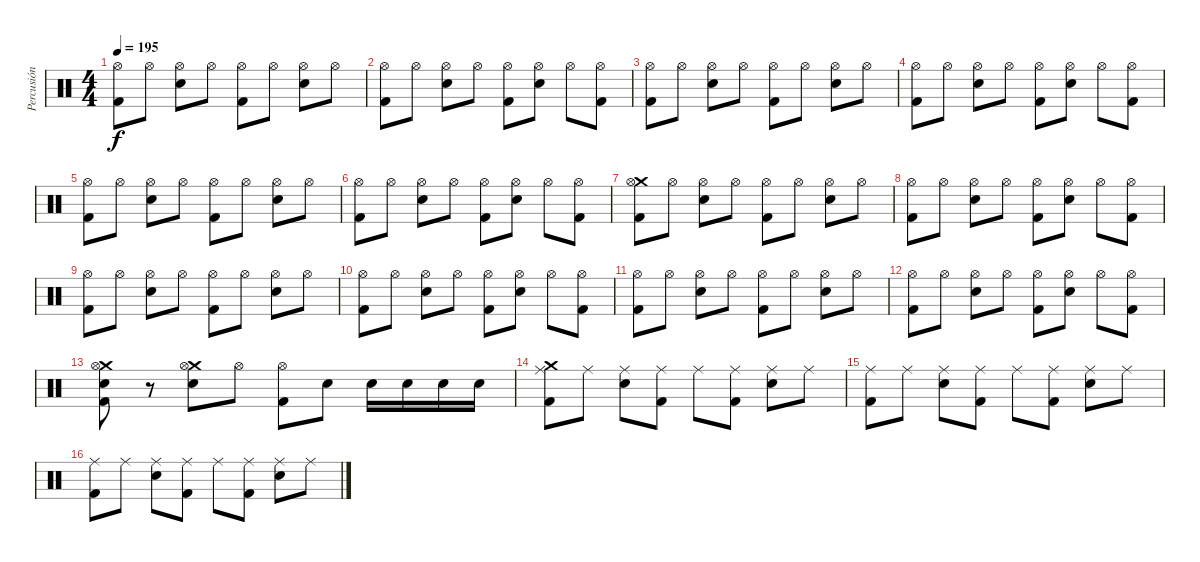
\track ("Percusión" "Percusión") {instrument percussion}
\staff {score}
\articulation defaults
\ts (4 4)
\tempo 195
\clef neutral
\ks c
("Hi-Hat (open)" "Kick (hit) 2").8{dy f} "Hi-Hat (open)".8 ("Hi-Hat (open)" "Snare (hit) 2").8 "Hi-Hat (open)".8 ("Hi-Hat (open)" "Kick (hit) 2").8 "Hi-Hat (open)".8 ("Hi-Hat (open)" "Snare (hit) 2").8 "Hi-Hat (open)".8 |
("Hi-Hat (open)" "Kick (hit) 2").8 "Hi-Hat (open)".8 ("Hi-Hat (open)" "Snare (hit) 2").8 "Hi-Hat (open)".8 ("Hi-Hat (open)" "Kick (hit) 2").8 ("Hi-Hat (open)" "Snare (hit) 2").8 "Hi-Hat (open)".8 ("Hi-Hat (open)" "Kick (hit) 2").8 |
("Hi-Hat (open)" "Kick (hit) 2").8 "Hi-Hat (open)".8 ("Hi-Hat (open)" "Snare (hit) 2").8 "Hi-Hat (open)".8 ("Hi-Hat (open)" "Kick (hit) 2").8 "Hi-Hat (open)".8 ("Hi-Hat (open)" "Snare (hit) 2").8 "Hi-Hat (open)".8 |
("Hi-Hat (open)" "Kick (hit) 2").8 "Hi-Hat (open)".8 ("Hi-Hat (open)" "Snare (hit) 2").8 "Hi-Hat (open)".8 ("Hi-Hat (open)" "Kick (hit) 2").8 ("Hi-Hat (open)" "Snare (hit) 2").8 "Hi-Hat (open)".8 ("Hi-Hat (open)" "Kick (hit) 2").8 |
("Hi-Hat (open)" "Kick (hit) 2").8 "Hi-Hat (open)".8 ("Hi-Hat (open)" "Snare (hit) 2").8 "Hi-Hat (open)".8 ("Hi-Hat (open)" "Kick (hit) 2").8 "Hi-Hat (open)".8 ("Hi-Hat (open)" "Snare (hit) 2").8 "Hi-Hat (open)".8 |
("Hi-Hat (open)" "Kick (hit) 2").8 "Hi-Hat (open)".8 ("Hi-Hat (open)" "Snare (hit) 2").8 "Hi-Hat (open)".8 ("Hi-Hat (open)" "Kick (hit) 2").8 ("Hi-Hat (open)" "Snare (hit) 2").8 "Hi-Hat (open)".8 ("Hi-Hat (open)" "Kick (hit) 2").8 |
("Crash medium (hit)" "Hi-Hat (open)" "Kick (hit) 2").8 "Hi-Hat (open)".8 ("Hi-Hat (open)" "Snare (hit) 2").8 "Hi-Hat (open)".8 ("Hi-Hat (open)" "Kick (hit) 2").8 "Hi-Hat (open)".8 ("Hi-Hat (open)" "Snare (hit) 2").8 "Hi-Hat (open)".8 |
("Hi-Hat (open)" "Kick (hit) 2").8 "Hi-Hat (open)".8 ("Hi-Hat (open)" "Snare (hit) 2").8 "Hi-Hat (open)".8 ("Hi-Hat (open)" "Kick (hit) 2").8 ("Hi-Hat (open)" "Snare (hit) 2").8 "Hi-Hat (open)".8 ("Hi-Hat (open)" "Kick (hit) 2").8 |
("Hi-Hat (open)" "Kick (hit) 2").8 "Hi-Hat (open)".8 ("Hi-Hat (open)" "Snare (hit) 2").8 "Hi-Hat (open)".8 ("Hi-Hat (open)" "Kick (hit) 2").8 "Hi-Hat (open)".8 ("Hi-Hat (open)" "Snare (hit) 2").8 "Hi-Hat (open)".8 |
("Hi-Hat (open)" "Kick (hit) 2").8 "Hi-Hat (open)".8 ("Hi-Hat (open)" "Snare (hit) 2").8 "Hi-Hat (open)".8 ("Hi-Hat (open)" "Kick (hit) 2").8 ("Hi-Hat (open)" "Snare (hit) 2").8 "Hi-Hat (open)".8 ("Hi-Hat (open)" "Kick (hit) 2").8 |
("Hi-Hat (open)" "Kick (hit) 2").8 "Hi-Hat (open)".8 ("Hi-Hat (open)" "Snare (hit) 2").8 "Hi-Hat (open)".8 ("Hi-Hat (open)" "Kick (hit) 2").8 "Hi-Hat (open)".8 ("Hi-Hat (open)" "Snare (hit) 2").8 "Hi-Hat (open)".8 |
("Hi-Hat (open)" "Kick (hit) 2").8 "Hi-Hat (open)".8 ("Hi-Hat (open)" "Snare (hit) 2").8 "Hi-Hat (open)".8 ("Hi-Hat (open)" "Kick (hit) 2").8 ("Hi-Hat (open)" "Snare (hit) 2").8 "Hi-Hat (open)".8 ("Hi-Hat (open)" "Kick (hit) 2").8 |
("Crash medium (hit)" "Hi-Hat (open)" "Snare (hit) 2" "Kick (hit) 2").8 r.8 ("Crash medium (hit)" "Hi-Hat (open)" "Snare (hit) 2").8 "Hi-Hat (open)".8 ("Hi-Hat (open)" "Kick (hit) 2").8 "Snare (hit) 2".8 "Snare (hit) 2".16 "Snare (hit) 2".16 "Snare (hit) 2".16 "Snare (hit) 2".16 |
("Crash medium (hit)" "Ride (middle)" "Kick (hit) 2").8 "Ride (middle)".8 ("Ride (middle)" "Snare (hit) 2").8 ("Ride (middle)" "Kick (hit) 2").8 "Ride (middle)".8 ("Ride (middle)" "Kick (hit) 2").8 ("Ride (middle)" "Snare (hit) 2").8 "Ride (middle)".8 |
("Ride (middle)" "Kick (hit) 2").8 "Ride (middle)".8 ("Ride (middle)" "Snare (hit) 2").8 ("Ride (middle)" "Kick (hit) 2").8 "Ride (middle)".8 ("Ride (middle)" "Kick (hit) 2").8 ("Ride (middle)" "Snare (hit) 2").8 "Ride (middle)".8 |
("Ride (middle)" "Kick (hit) 2").8 "Ride (middle)".8 ("Ride (middle)" "Snare (hit) 2").8 ("Ride (middle)" "Kick (hit) 2").8 "Ride (middle)".8 ("Ride (middle)" "Kick (hit) 2").8 ("Ride (middle)" "Snare (hit) 2").8 "Ride (middle)".8
